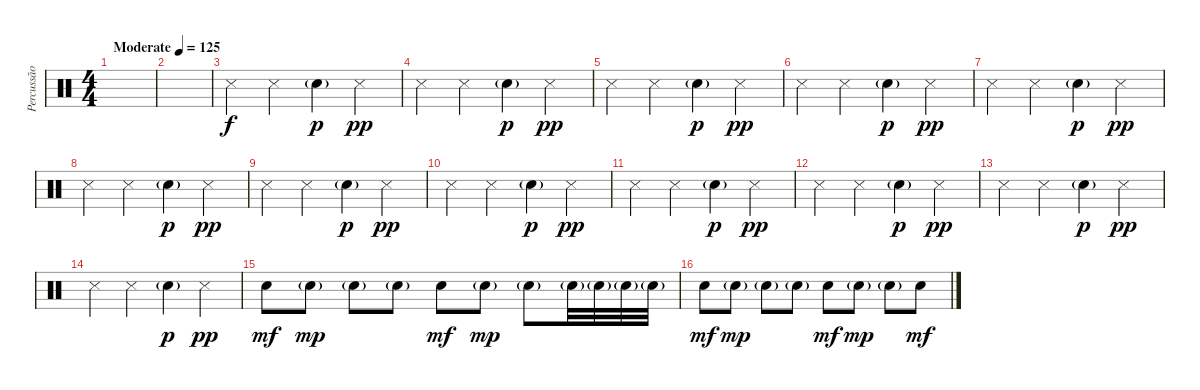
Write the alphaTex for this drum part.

\track ("Percussão" "Percussão") {instrument percussion}
\staff {score}
\articulation defaults
\ts (4 4)
\tempo (125 "Moderate")
\clef neutral
\ks c
|
|
"Metronome (hit)".4 "Metronome (hit)".4 "Electric Snare (hit)"{g}.4{dy p} "Metronome (hit)".4{dy pp} |
"Metronome (hit)".4 "Metronome (hit)".4 "Electric Snare (hit)"{g}.4{dy p} "Metronome (hit)".4{dy pp} |
"Metronome (hit)".4 "Metronome (hit)".4 "Electric Snare (hit)"{g}.4{dy p} "Metronome (hit)".4{dy pp} |
"Metronome (hit)".4 "Metronome (hit)".4 "Electric Snare (hit)"{g}.4{dy p} "Metronome (hit)".4{dy pp} |
"Metronome (hit)".4 "Metronome (hit)".4 "Electric Snare (hit)"{g}.4{dy p} "Metronome (hit)".4{dy pp} |
"Metronome (hit)".4 "Metronome (hit)".4 "Electric Snare (hit)"{g}.4{dy p} "Metronome (hit)".4{dy pp} |
"Metronome (hit)".4 "Metronome (hit)".4 "Electric Snare (hit)"{g}.4{dy p} "Metronome (hit)".4{dy pp} |
"Metronome (hit)".4 "Metronome (hit)".4 "Electric Snare (hit)"{g}.4{dy p} "Metronome (hit)".4{dy pp} |
"Metronome (hit)".4 "Metronome (hit)".4 "Electric Snare (hit)"{g}.4{dy p} "Metronome (hit)".4{dy pp} |
"Metronome (hit)".4 "Metronome (hit)".4 "Electric Snare (hit)"{g}.4{dy p} "Metronome (hit)".4{dy pp} |
"Metronome (hit)".4 "Metronome (hit)".4 "Electric Snare (hit)"{g}.4{dy p} "Metronome (hit)".4{dy pp} |
"Metronome (hit)".4 "Metronome (hit)".4 "Electric Snare (hit)"{g}.4{dy p} "Metronome (hit)".4{dy pp} |
"Electric Snare (hit)".8{dy mf} "Electric Snare (hit)"{g}.8{dy mp} "Electric Snare (hit)"{g}.8 "Electric Snare (hit)"{g}.8 "Electric Snare (hit)".8{dy mf} "Electric Snare (hit)"{g}.8{dy mp} "Electric Snare (hit)"{g}.8 "Electric Snare (hit)"{g}.32 "Electric Snare (hit)"{g}.32 "Electric Snare (hit)"{g}.32 "Electric Snare (hit)"{g}.32 |
"Electric Snare (hit)".8{dy mf} "Electric Snare (hit)"{g}.8{dy mp} "Electric Snare (hit)"{g}.8 "Electric Snare (hit)"{g}.8 "Electric Snare (hit)".8{dy mf} "Electric Snare (hit)"{g}.8{dy mp} "Electric Snare (hit)"{g}.8 "Electric Snare (hit)".8{dy mf}
